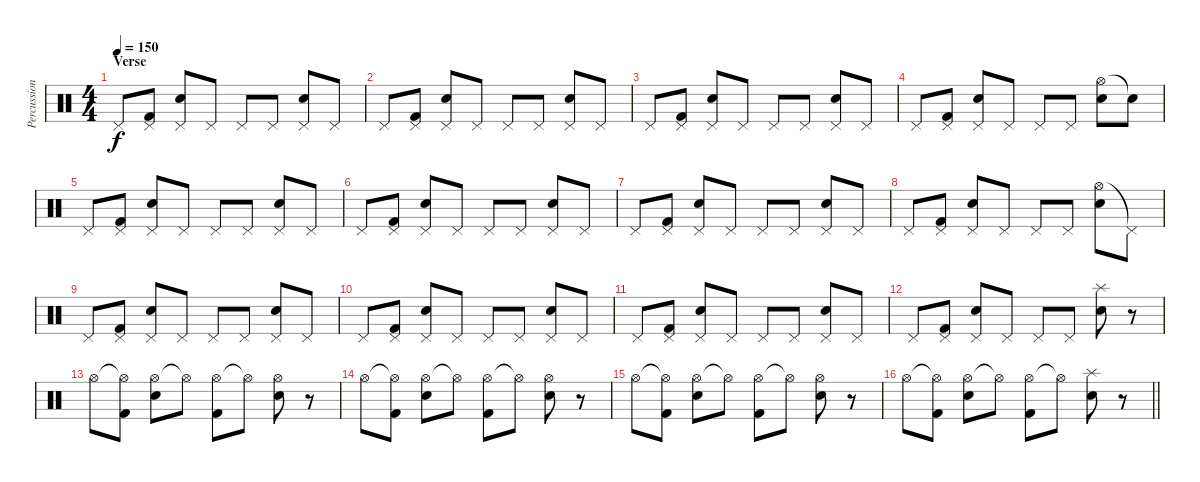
\track ("Percussion" "Percussion") {instrument percussion}
\staff {score}
\articulation defaults
\ts (4 4)
\section ("" "Verse")
\tempo 150
\clef neutral
\ks c "Pedal Hi-Hat (hit)".8{dy f}
("Pedal Hi-Hat (hit)" "Kick (hit) 2").8 ("Pedal Hi-Hat (hit)" "Electric Snare (hit)").8 "Pedal Hi-Hat (hit)".8 "Pedal Hi-Hat (hit)".8 "Pedal Hi-Hat (hit)".8 ("Pedal Hi-Hat (hit)" "Electric Snare (hit)").8 "Pedal Hi-Hat (hit)".8 |
"Pedal Hi-Hat (hit)".8 ("Pedal Hi-Hat (hit)" "Kick (hit) 2").8 ("Pedal Hi-Hat (hit)" "Electric Snare (hit)").8 "Pedal Hi-Hat (hit)".8 "Pedal Hi-Hat (hit)".8 "Pedal Hi-Hat (hit)".8 ("Pedal Hi-Hat (hit)" "Electric Snare (hit)").8 "Pedal Hi-Hat (hit)".8 |
"Pedal Hi-Hat (hit)".8 ("Pedal Hi-Hat (hit)" "Kick (hit) 2").8 ("Pedal Hi-Hat (hit)" "Electric Snare (hit)").8 "Pedal Hi-Hat (hit)".8 "Pedal Hi-Hat (hit)".8 "Pedal Hi-Hat (hit)".8 ("Pedal Hi-Hat (hit)" "Electric Snare (hit)").8 "Pedal Hi-Hat (hit)".8 |
"Pedal Hi-Hat (hit)".8 ("Pedal Hi-Hat (hit)" "Kick (hit) 2").8 ("Pedal Hi-Hat (hit)" "Electric Snare (hit)").8 "Pedal Hi-Hat (hit)".8 "Pedal Hi-Hat (hit)".8 "Pedal Hi-Hat (hit)".8 ("Hi-Hat (open)" "Electric Snare (hit)").8 "Snare (hit)"{t}.8 |
"Pedal Hi-Hat (hit)".8 ("Pedal Hi-Hat (hit)" "Kick (hit) 2").8 ("Pedal Hi-Hat (hit)" "Electric Snare (hit)").8 "Pedal Hi-Hat (hit)".8 "Pedal Hi-Hat (hit)".8 "Pedal Hi-Hat (hit)".8 ("Pedal Hi-Hat (hit)" "Electric Snare (hit)").8 "Pedal Hi-Hat (hit)".8 |
"Pedal Hi-Hat (hit)".8 ("Pedal Hi-Hat (hit)" "Kick (hit) 2").8 ("Pedal Hi-Hat (hit)" "Electric Snare (hit)").8 "Pedal Hi-Hat (hit)".8 "Pedal Hi-Hat (hit)".8 "Pedal Hi-Hat (hit)".8 ("Pedal Hi-Hat (hit)" "Electric Snare (hit)").8 "Pedal Hi-Hat (hit)".8 |
"Pedal Hi-Hat (hit)".8 ("Pedal Hi-Hat (hit)" "Kick (hit) 2").8 ("Pedal Hi-Hat (hit)" "Electric Snare (hit)").8 "Pedal Hi-Hat (hit)".8 "Pedal Hi-Hat (hit)".8 "Pedal Hi-Hat (hit)".8 ("Pedal Hi-Hat (hit)" "Electric Snare (hit)").8 "Pedal Hi-Hat (hit)".8 |
"Pedal Hi-Hat (hit)".8 ("Pedal Hi-Hat (hit)" "Kick (hit) 2").8 ("Pedal Hi-Hat (hit)" "Electric Snare (hit)").8 "Pedal Hi-Hat (hit)".8 "Pedal Hi-Hat (hit)".8 "Pedal Hi-Hat (hit)".8 ("Hi-Hat (open)" "Electric Snare (hit)").8 "Pedal Hi-Hat (hit)"{t}.8 |
"Pedal Hi-Hat (hit)".8 ("Pedal Hi-Hat (hit)" "Kick (hit) 2").8 ("Pedal Hi-Hat (hit)" "Electric Snare (hit)").8 "Pedal Hi-Hat (hit)".8 "Pedal Hi-Hat (hit)".8 "Pedal Hi-Hat (hit)".8 ("Pedal Hi-Hat (hit)" "Electric Snare (hit)").8 "Pedal Hi-Hat (hit)".8 |
"Pedal Hi-Hat (hit)".8 ("Pedal Hi-Hat (hit)" "Kick (hit) 2").8 ("Pedal Hi-Hat (hit)" "Electric Snare (hit)").8 "Pedal Hi-Hat (hit)".8 "Pedal Hi-Hat (hit)".8 "Pedal Hi-Hat (hit)".8 ("Pedal Hi-Hat (hit)" "Electric Snare (hit)").8 "Pedal Hi-Hat (hit)".8 |
"Pedal Hi-Hat (hit)".8 ("Pedal Hi-Hat (hit)" "Kick (hit) 2").8 ("Pedal Hi-Hat (hit)" "Electric Snare (hit)").8 "Pedal Hi-Hat (hit)".8 "Pedal Hi-Hat (hit)".8 "Pedal Hi-Hat (hit)".8 ("Pedal Hi-Hat (hit)" "Electric Snare (hit)").8 "Pedal Hi-Hat (hit)".8 |
"Pedal Hi-Hat (hit)".8 ("Pedal Hi-Hat (hit)" "Kick (hit) 2").8 ("Pedal Hi-Hat (hit)" "Electric Snare (hit)").8 "Pedal Hi-Hat (hit)".8 "Pedal Hi-Hat (hit)".8 "Pedal Hi-Hat (hit)".8 ("Splash (hit)" "Electric Snare (hit)").8 r.8 |
"Hi-Hat (open)".8 ("Hi-Hat (open)"{t} "Kick (hit) 2").8 ("Hi-Hat (open)" "Electric Snare (hit)").8 "Hi-Hat (open)"{t}.8 ("Hi-Hat (open)" "Kick (hit) 2").8 "Hi-Hat (open)"{t}.8 ("Hi-Hat (open)" "Electric Snare (hit)").8 r.8 |
"Hi-Hat (open)".8 ("Hi-Hat (open)"{t} "Kick (hit) 2").8 ("Hi-Hat (open)" "Electric Snare (hit)").8 "Hi-Hat (open)"{t}.8 ("Hi-Hat (open)" "Kick (hit) 2").8 "Hi-Hat (open)"{t}.8 ("Hi-Hat (open)" "Electric Snare (hit)").8 r.8 |
"Hi-Hat (open)".8 ("Hi-Hat (open)"{t} "Kick (hit) 2").8 ("Hi-Hat (open)" "Electric Snare (hit)").8 "Hi-Hat (open)"{t}.8 ("Hi-Hat (open)" "Kick (hit) 2").8 "Hi-Hat (open)"{t}.8 ("Hi-Hat (open)" "Electric Snare (hit)").8 r.8 |
\barLineRight lightlight "Hi-Hat (open)".8
("Hi-Hat (open)"{t} "Kick (hit) 2").8 ("Hi-Hat (open)" "Electric Snare (hit)").8 "Hi-Hat (open)"{t}.8 ("Hi-Hat (open)" "Kick (hit) 2").8 "Hi-Hat (open)"{t}.8 ("Splash (hit)" "Electric Snare (hit)").8 r.8
